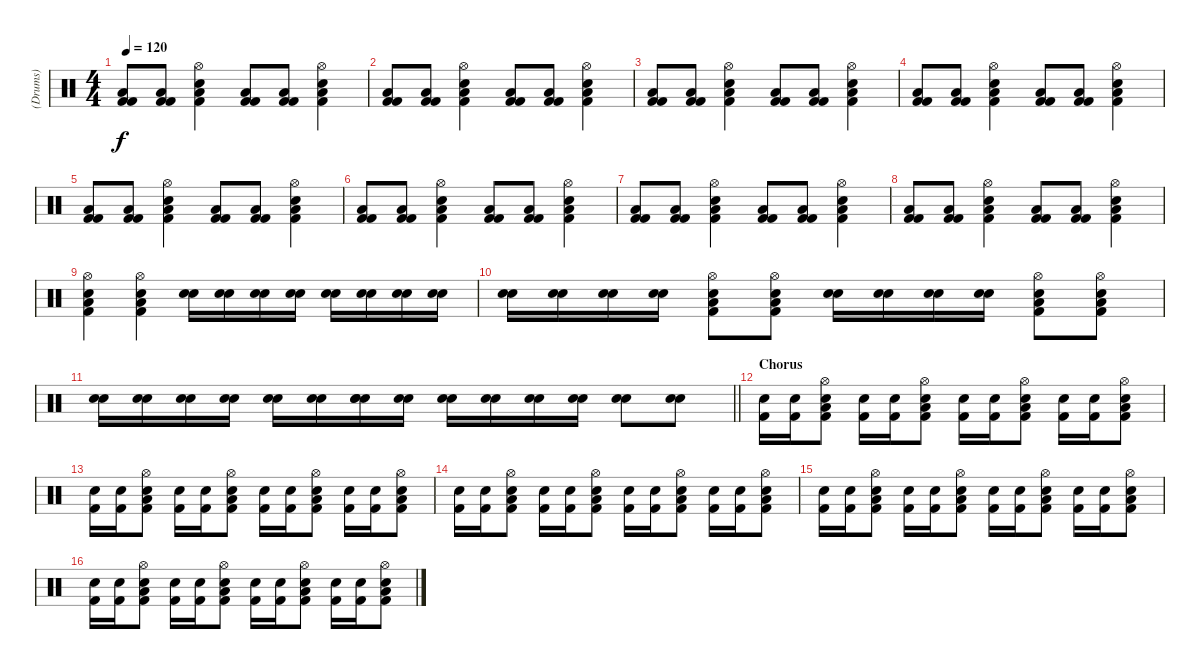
\track ("(Drums)" "(Drums)") {instrument percussion}
\staff {score}
\articulation defaults
\ts (4 4)
\tempo 120
\clef neutral
\ks c
("Kick (hit) 2" "Kick (hit) 2" "Low Floor Tom (hit)").8{dy f} ("Kick (hit) 2" "Kick (hit) 2" "Low Floor Tom (hit)").8 ("Kick (hit) 2" "Electric Snare (hit)" "Low Floor Tom (hit)" "Hi-Hat (open)").4 ("Kick (hit) 2" "Kick (hit) 2" "Low Floor Tom (hit)").8 ("Kick (hit) 2" "Kick (hit) 2" "Low Floor Tom (hit)").8 ("Kick (hit) 2" "Electric Snare (hit)" "Low Floor Tom (hit)" "Hi-Hat (open)").4 |
("Kick (hit) 2" "Kick (hit) 2" "Low Floor Tom (hit)").8 ("Kick (hit) 2" "Kick (hit) 2" "Low Floor Tom (hit)").8 ("Kick (hit) 2" "Electric Snare (hit)" "Low Floor Tom (hit)" "Hi-Hat (open)").4 ("Kick (hit) 2" "Kick (hit) 2" "Low Floor Tom (hit)").8 ("Kick (hit) 2" "Kick (hit) 2" "Low Floor Tom (hit)").8 ("Kick (hit) 2" "Electric Snare (hit)" "Low Floor Tom (hit)" "Hi-Hat (open)").4 |
("Kick (hit) 2" "Kick (hit) 2" "Low Floor Tom (hit)").8 ("Kick (hit) 2" "Kick (hit) 2" "Low Floor Tom (hit)").8 ("Kick (hit) 2" "Electric Snare (hit)" "Low Floor Tom (hit)" "Hi-Hat (open)").4 ("Kick (hit) 2" "Kick (hit) 2" "Low Floor Tom (hit)").8 ("Kick (hit) 2" "Kick (hit) 2" "Low Floor Tom (hit)").8 ("Kick (hit) 2" "Electric Snare (hit)" "Low Floor Tom (hit)" "Hi-Hat (open)").4 |
("Kick (hit) 2" "Kick (hit) 2" "Low Floor Tom (hit)").8 ("Kick (hit) 2" "Kick (hit) 2" "Low Floor Tom (hit)").8 ("Kick (hit) 2" "Electric Snare (hit)" "Low Floor Tom (hit)" "Hi-Hat (open)").4 ("Kick (hit) 2" "Kick (hit) 2" "Low Floor Tom (hit)").8 ("Kick (hit) 2" "Kick (hit) 2" "Low Floor Tom (hit)").8 ("Kick (hit) 2" "Electric Snare (hit)" "Low Floor Tom (hit)" "Hi-Hat (open)").4 |
("Kick (hit) 2" "Kick (hit) 2" "Low Floor Tom (hit)").8 ("Kick (hit) 2" "Kick (hit) 2" "Low Floor Tom (hit)").8 ("Kick (hit) 2" "Electric Snare (hit)" "Low Floor Tom (hit)" "Hi-Hat (open)").4 ("Kick (hit) 2" "Kick (hit) 2" "Low Floor Tom (hit)").8 ("Kick (hit) 2" "Kick (hit) 2" "Low Floor Tom (hit)").8 ("Kick (hit) 2" "Electric Snare (hit)" "Low Floor Tom (hit)" "Hi-Hat (open)").4 |
("Kick (hit) 2" "Kick (hit) 2" "Low Floor Tom (hit)").8 ("Kick (hit) 2" "Kick (hit) 2" "Low Floor Tom (hit)").8 ("Kick (hit) 2" "Electric Snare (hit)" "Low Floor Tom (hit)" "Hi-Hat (open)").4 ("Kick (hit) 2" "Kick (hit) 2" "Low Floor Tom (hit)").8 ("Kick (hit) 2" "Kick (hit) 2" "Low Floor Tom (hit)").8 ("Kick (hit) 2" "Electric Snare (hit)" "Low Floor Tom (hit)" "Hi-Hat (open)").4 |
("Kick (hit) 2" "Kick (hit) 2" "Low Floor Tom (hit)").8 ("Kick (hit) 2" "Kick (hit) 2" "Low Floor Tom (hit)").8 ("Kick (hit) 2" "Electric Snare (hit)" "Low Floor Tom (hit)" "Hi-Hat (open)").4 ("Kick (hit) 2" "Kick (hit) 2" "Low Floor Tom (hit)").8 ("Kick (hit) 2" "Kick (hit) 2" "Low Floor Tom (hit)").8 ("Kick (hit) 2" "Electric Snare (hit)" "Low Floor Tom (hit)" "Hi-Hat (open)").4 |
("Kick (hit) 2" "Kick (hit) 2" "Low Floor Tom (hit)").8 ("Kick (hit) 2" "Kick (hit) 2" "Low Floor Tom (hit)").8 ("Kick (hit) 2" "Electric Snare (hit)" "Low Floor Tom (hit)" "Hi-Hat (open)").4 ("Kick (hit) 2" "Kick (hit) 2" "Low Floor Tom (hit)").8 ("Kick (hit) 2" "Kick (hit) 2" "Low Floor Tom (hit)").8 ("Kick (hit) 2" "Electric Snare (hit)" "Low Floor Tom (hit)" "Hi-Hat (open)").4 |
("Kick (hit) 2" "Electric Snare (hit)" "Low Floor Tom (hit)" "Hi-Hat (open)").4 ("Kick (hit) 2" "Electric Snare (hit)" "Low Floor Tom (hit)" "Hi-Hat (open)").4 ("Electric Snare (hit)" "Electric Snare (hit)").16 ("Electric Snare (hit)" "Electric Snare (hit)").16 ("Electric Snare (hit)" "Electric Snare (hit)").16 ("Electric Snare (hit)" "Electric Snare (hit)").16 ("Electric Snare (hit)" "Electric Snare (hit)").16 ("Electric Snare (hit)" "Electric Snare (hit)").16 ("Electric Snare (hit)" "Electric Snare (hit)").16 ("Electric Snare (hit)" "Electric Snare (hit)").16 |
("Electric Snare (hit)" "Electric Snare (hit)").16 ("Electric Snare (hit)" "Electric Snare (hit)").16 ("Electric Snare (hit)" "Electric Snare (hit)").16 ("Electric Snare (hit)" "Electric Snare (hit)").16 ("Kick (hit) 2" "Electric Snare (hit)" "Low Floor Tom (hit)" "Hi-Hat (open)").8 ("Kick (hit) 2" "Electric Snare (hit)" "Low Floor Tom (hit)" "Hi-Hat (open)").8 ("Electric Snare (hit)" "Electric Snare (hit)").16 ("Electric Snare (hit)" "Electric Snare (hit)").16 ("Electric Snare (hit)" "Electric Snare (hit)").16 ("Electric Snare (hit)" "Electric Snare (hit)").16 ("Kick (hit) 2" "Electric Snare (hit)" "Low Floor Tom (hit)" "Hi-Hat (open)").8 ("Kick (hit) 2" "Electric Snare (hit)" "Low Floor Tom (hit)" "Hi-Hat (open)").8 |
\barLineRight lightlight
("Electric Snare (hit)" "Electric Snare (hit)").16 ("Electric Snare (hit)" "Electric Snare (hit)").16 ("Electric Snare (hit)" "Electric Snare (hit)").16 ("Electric Snare (hit)" "Electric Snare (hit)").16 ("Electric Snare (hit)" "Electric Snare (hit)").16 ("Electric Snare (hit)" "Electric Snare (hit)").16 ("Electric Snare (hit)" "Electric Snare (hit)" "Electric Snare (hit)").16 ("Electric Snare (hit)" "Electric Snare (hit)").16 ("Electric Snare (hit)" "Electric Snare (hit)").16 ("Electric Snare (hit)" "Electric Snare (hit)").16 ("Electric Snare (hit)" "Electric Snare (hit)").16 ("Electric Snare (hit)" "Electric Snare (hit)").16 ("Electric Snare (hit)" "Electric Snare (hit)").8 ("Electric Snare (hit)" "Electric Snare (hit)").8 |
\section ("" "Chorus")
("Kick (hit) 2" "Electric Snare (hit)").16 ("Kick (hit) 2" "Electric Snare (hit)").16 ("Kick (hit) 2" "Electric Snare (hit)" "Low Floor Tom (hit)" "Hi-Hat (open)").8 ("Kick (hit) 2" "Electric Snare (hit)").16 ("Kick (hit) 2" "Electric Snare (hit)").16 ("Kick (hit) 2" "Electric Snare (hit)" "Low Floor Tom (hit)" "Hi-Hat (open)").8 ("Kick (hit) 2" "Electric Snare (hit)").16 ("Kick (hit) 2" "Electric Snare (hit)").16 ("Kick (hit) 2" "Electric Snare (hit)" "Low Floor Tom (hit)" "Hi-Hat (open)").8 ("Kick (hit) 2" "Electric Snare (hit)").16 ("Kick (hit) 2" "Electric Snare (hit)").16 ("Kick (hit) 2" "Electric Snare (hit)" "Low Floor Tom (hit)" "Hi-Hat (open)").8 |
("Kick (hit) 2" "Electric Snare (hit)").16 ("Kick (hit) 2" "Electric Snare (hit)").16 ("Kick (hit) 2" "Electric Snare (hit)" "Low Floor Tom (hit)" "Hi-Hat (open)").8 ("Kick (hit) 2" "Electric Snare (hit)").16 ("Kick (hit) 2" "Electric Snare (hit)").16 ("Kick (hit) 2" "Electric Snare (hit)" "Low Floor Tom (hit)" "Hi-Hat (open)").8 ("Kick (hit) 2" "Electric Snare (hit)").16 ("Kick (hit) 2" "Electric Snare (hit)").16 ("Kick (hit) 2" "Electric Snare (hit)" "Low Floor Tom (hit)" "Hi-Hat (open)").8 ("Kick (hit) 2" "Electric Snare (hit)").16 ("Kick (hit) 2" "Electric Snare (hit)").16 ("Kick (hit) 2" "Electric Snare (hit)" "Low Floor Tom (hit)" "Hi-Hat (open)").8 |
("Kick (hit) 2" "Electric Snare (hit)").16 ("Kick (hit) 2" "Electric Snare (hit)").16 ("Kick (hit) 2" "Electric Snare (hit)" "Low Floor Tom (hit)" "Hi-Hat (open)").8 ("Kick (hit) 2" "Electric Snare (hit)").16 ("Kick (hit) 2" "Electric Snare (hit)").16 ("Kick (hit) 2" "Electric Snare (hit)" "Low Floor Tom (hit)" "Hi-Hat (open)").8 ("Kick (hit) 2" "Electric Snare (hit)").16 ("Kick (hit) 2" "Electric Snare (hit)").16 ("Kick (hit) 2" "Electric Snare (hit)" "Low Floor Tom (hit)" "Hi-Hat (open)").8 ("Kick (hit) 2" "Electric Snare (hit)").16 ("Kick (hit) 2" "Electric Snare (hit)").16 ("Kick (hit) 2" "Electric Snare (hit)" "Low Floor Tom (hit)" "Hi-Hat (open)").8 |
("Kick (hit) 2" "Electric Snare (hit)").16 ("Kick (hit) 2" "Electric Snare (hit)").16 ("Kick (hit) 2" "Electric Snare (hit)" "Low Floor Tom (hit)" "Hi-Hat (open)").8 ("Kick (hit) 2" "Electric Snare (hit)").16 ("Kick (hit) 2" "Electric Snare (hit)").16 ("Kick (hit) 2" "Electric Snare (hit)" "Low Floor Tom (hit)" "Hi-Hat (open)").8 ("Kick (hit) 2" "Electric Snare (hit)").16 ("Kick (hit) 2" "Electric Snare (hit)").16 ("Kick (hit) 2" "Electric Snare (hit)" "Low Floor Tom (hit)" "Hi-Hat (open)").8 ("Kick (hit) 2" "Electric Snare (hit)").16 ("Kick (hit) 2" "Electric Snare (hit)").16 ("Kick (hit) 2" "Electric Snare (hit)" "Low Floor Tom (hit)" "Hi-Hat (open)").8 |
("Kick (hit) 2" "Electric Snare (hit)").16 ("Kick (hit) 2" "Electric Snare (hit)").16 ("Kick (hit) 2" "Electric Snare (hit)" "Low Floor Tom (hit)" "Hi-Hat (open)").8 ("Kick (hit) 2" "Electric Snare (hit)").16 ("Kick (hit) 2" "Electric Snare (hit)").16 ("Kick (hit) 2" "Electric Snare (hit)" "Low Floor Tom (hit)" "Hi-Hat (open)").8 ("Kick (hit) 2" "Electric Snare (hit)").16 ("Kick (hit) 2" "Electric Snare (hit)").16 ("Kick (hit) 2" "Electric Snare (hit)" "Low Floor Tom (hit)" "Hi-Hat (open)").8 ("Kick (hit) 2" "Electric Snare (hit)").16 ("Kick (hit) 2" "Electric Snare (hit)").16 ("Kick (hit) 2" "Electric Snare (hit)" "Low Floor Tom (hit)" "Hi-Hat (open)").8
